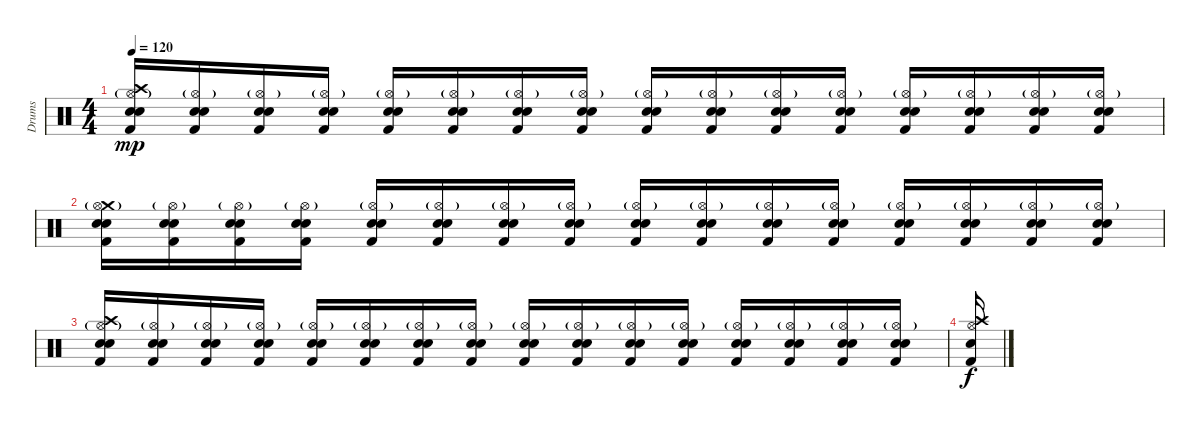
\track ("Drums" "Drums") {instrument percussion}
\staff {score}
\articulation defaults
\ts (4 4)
\tempo 120
\clef neutral
\ks c
("Kick (hit) 2" "Crash high (hit)" "Hi-Hat (open)"{g} "Electric Snare (hit)" "Snare (hit) 2").16{dy mp} ("Kick (hit) 2" "Hi-Hat (open)"{g} "Electric Snare (hit)" "Snare (hit) 2").16 ("Kick (hit) 2" "Hi-Hat (open)"{g} "Electric Snare (hit)" "Snare (hit) 2").16 ("Kick (hit) 2" "Hi-Hat (open)"{g} "Electric Snare (hit)" "Snare (hit) 2").16 ("Kick (hit) 2" "Hi-Hat (open)"{g} "Electric Snare (hit)" "Snare (hit) 2").16 ("Kick (hit) 2" "Hi-Hat (open)"{g} "Electric Snare (hit)" "Snare (hit) 2").16 ("Kick (hit) 2" "Hi-Hat (open)"{g} "Electric Snare (hit)" "Snare (hit) 2").16 ("Kick (hit) 2" "Hi-Hat (open)"{g} "Electric Snare (hit)" "Snare (hit) 2").16 ("Kick (hit) 2" "Hi-Hat (open)"{g} "Electric Snare (hit)" "Snare (hit) 2").16 ("Kick (hit) 2" "Hi-Hat (open)"{g} "Electric Snare (hit)" "Snare (hit) 2").16 ("Kick (hit) 2" "Hi-Hat (open)"{g} "Electric Snare (hit)" "Snare (hit) 2").16 ("Kick (hit) 2" "Hi-Hat (open)"{g} "Electric Snare (hit)" "Snare (hit) 2").16 ("Kick (hit) 2" "Hi-Hat (open)"{g} "Electric Snare (hit)" "Snare (hit) 2").16 ("Kick (hit) 2" "Hi-Hat (open)"{g} "Electric Snare (hit)" "Snare (hit) 2").16 ("Kick (hit) 2" "Hi-Hat (open)"{g} "Electric Snare (hit)" "Snare (hit) 2").16 ("Kick (hit) 2" "Hi-Hat (open)"{g} "Electric Snare (hit)" "Snare (hit) 2").16 |
("Kick (hit) 2" "Crash medium (hit)" "Hi-Hat (open)"{g} "Electric Snare (hit)" "Snare (hit) 2").16 ("Kick (hit) 2" "Hi-Hat (open)"{g} "Electric Snare (hit)" "Snare (hit) 2").16 ("Kick (hit) 2" "Hi-Hat (open)"{g} "Electric Snare (hit)" "Snare (hit) 2").16 ("Kick (hit) 2" "Hi-Hat (open)"{g} "Electric Snare (hit)" "Snare (hit) 2").16 ("Kick (hit) 2" "Hi-Hat (open)"{g} "Electric Snare (hit)" "Snare (hit) 2").16 ("Kick (hit) 2" "Hi-Hat (open)"{g} "Electric Snare (hit)" "Snare (hit) 2").16 ("Kick (hit) 2" "Hi-Hat (open)"{g} "Electric Snare (hit)" "Snare (hit) 2").16 ("Kick (hit) 2" "Hi-Hat (open)"{g} "Electric Snare (hit)" "Snare (hit) 2").16 ("Kick (hit) 2" "Hi-Hat (open)"{g} "Electric Snare (hit)" "Snare (hit) 2").16 ("Kick (hit) 2" "Hi-Hat (open)"{g} "Electric Snare (hit)" "Snare (hit) 2").16 ("Kick (hit) 2" "Hi-Hat (open)"{g} "Electric Snare (hit)" "Snare (hit) 2").16 ("Kick (hit) 2" "Hi-Hat (open)"{g} "Electric Snare (hit)" "Snare (hit) 2").16 ("Kick (hit) 2" "Hi-Hat (open)"{g} "Electric Snare (hit)" "Snare (hit) 2").16 ("Kick (hit) 2" "Hi-Hat (open)"{g} "Electric Snare (hit)" "Snare (hit) 2").16 ("Kick (hit) 2" "Hi-Hat (open)"{g} "Electric Snare (hit)" "Snare (hit) 2").16 ("Kick (hit) 2" "Hi-Hat (open)"{g} "Electric Snare (hit)" "Snare (hit) 2").16 |
("Kick (hit) 2" "Crash high (hit)" "Hi-Hat (open)"{g} "Electric Snare (hit)" "Snare (hit) 2").16 ("Kick (hit) 2" "Hi-Hat (open)"{g} "Electric Snare (hit)" "Snare (hit) 2").16 ("Kick (hit) 2" "Hi-Hat (open)"{g} "Electric Snare (hit)" "Snare (hit) 2").16 ("Kick (hit) 2" "Hi-Hat (open)"{g} "Electric Snare (hit)" "Snare (hit) 2").16 ("Kick (hit) 2" "Hi-Hat (open)"{g} "Electric Snare (hit)" "Snare (hit) 2").16 ("Kick (hit) 2" "Hi-Hat (open)"{g} "Electric Snare (hit)" "Snare (hit) 2").16 ("Kick (hit) 2" "Hi-Hat (open)"{g} "Electric Snare (hit)" "Snare (hit) 2").16 ("Kick (hit) 2" "Hi-Hat (open)"{g} "Electric Snare (hit)" "Snare (hit) 2").16 ("Kick (hit) 2" "Hi-Hat (open)"{g} "Electric Snare (hit)" "Snare (hit) 2").16 ("Kick (hit) 2" "Hi-Hat (open)"{g} "Electric Snare (hit)" "Snare (hit) 2").16 ("Kick (hit) 2" "Hi-Hat (open)"{g} "Electric Snare (hit)" "Snare (hit) 2").16 ("Kick (hit) 2" "Hi-Hat (open)"{g} "Electric Snare (hit)" "Snare (hit) 2").16 ("Kick (hit) 2" "Hi-Hat (open)"{g} "Electric Snare (hit)" "Snare (hit) 2").16 ("Kick (hit) 2" "Hi-Hat (open)"{g} "Electric Snare (hit)" "Snare (hit) 2").16 ("Kick (hit) 2" "Hi-Hat (open)"{g} "Electric Snare (hit)" "Snare (hit) 2").16 ("Kick (hit) 2" "Hi-Hat (open)"{g} "Electric Snare (hit)" "Snare (hit) 2").16 |
("Kick (hit) 2" "Electric Snare (hit)" "Crash high (hit)" "Hi-Hat (open)").16{dy f}
